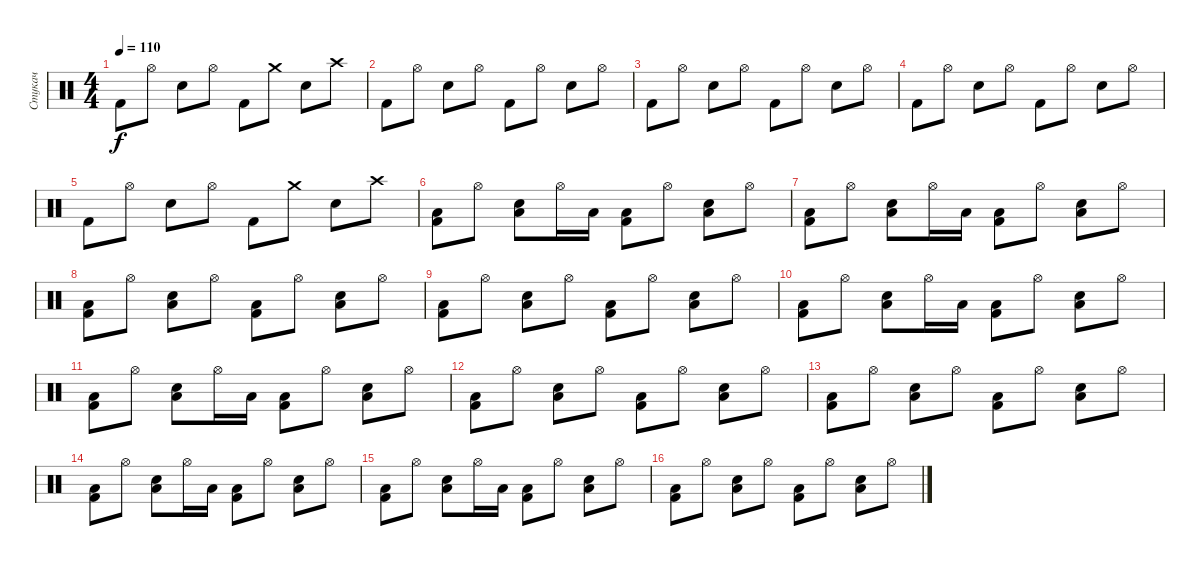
\track ("Стукач" "Стукач") {instrument percussion}
\staff {score}
\articulation defaults
\ts (4 4)
\tempo 110
\clef neutral
\ks c "Kick (hit) 2".8{dy f} "Hi-Hat (open)".8 "Electric Snare (hit)".8 "Hi-Hat (open)".8 "Kick (hit) 2".8 "Crash medium (hit)".8 "Electric Snare (hit)".8 "Crash high (hit)".8
|
"Kick (hit) 2".8 "Hi-Hat (open)".8 "Electric Snare (hit)".8 "Hi-Hat (open)".8 "Kick (hit) 2".8 "Hi-Hat (open)".8 "Electric Snare (hit)".8 "Hi-Hat (open)".8 |
"Kick (hit) 2".8 "Hi-Hat (open)".8 "Electric Snare (hit)".8 "Hi-Hat (open)".8 "Kick (hit) 2".8 "Hi-Hat (open)".8 "Electric Snare (hit)".8 "Hi-Hat (open)".8 |
"Kick (hit) 2".8 "Hi-Hat (open)".8 "Electric Snare (hit)".8 "Hi-Hat (open)".8 "Kick (hit) 2".8 "Hi-Hat (open)".8 "Electric Snare (hit)".8 "Hi-Hat (open)".8 |
"Kick (hit) 2".8 "Hi-Hat (open)".8 "Electric Snare (hit)".8 "Hi-Hat (open)".8 "Kick (hit) 2".8 "Crash medium (hit)".8 "Electric Snare (hit)".8 "Crash high (hit)".8 |
("Kick (hit) 2" "Low Floor Tom (hit)").8 "Hi-Hat (open)".8 ("Electric Snare (hit)" "Low Floor Tom (hit)").8 "Hi-Hat (open)".16 "Low Floor Tom (hit)".16 ("Kick (hit) 2" "Low Floor Tom (hit)").8 "Hi-Hat (open)".8 ("Electric Snare (hit)" "Low Floor Tom (hit)").8 "Hi-Hat (open)".8 |
("Kick (hit) 2" "Low Floor Tom (hit)").8 "Hi-Hat (open)".8 ("Electric Snare (hit)" "Low Floor Tom (hit)").8 "Hi-Hat (open)".16 "Low Floor Tom (hit)".16 ("Kick (hit) 2" "Low Floor Tom (hit)").8 "Hi-Hat (open)".8 ("Electric Snare (hit)" "Low Floor Tom (hit)").8 "Hi-Hat (open)".8 |
("Kick (hit) 2" "Low Floor Tom (hit)").8 "Hi-Hat (open)".8 ("Electric Snare (hit)" "Low Floor Tom (hit)").8 "Hi-Hat (open)".8 ("Kick (hit) 2" "Low Floor Tom (hit)").8 "Hi-Hat (open)".8 ("Electric Snare (hit)" "Low Floor Tom (hit)").8 "Hi-Hat (open)".8 |
("Kick (hit) 2" "Low Floor Tom (hit)").8 "Hi-Hat (open)".8 ("Electric Snare (hit)" "Low Floor Tom (hit)").8 "Hi-Hat (open)".8 ("Kick (hit) 2" "Low Floor Tom (hit)").8 "Hi-Hat (open)".8 ("Electric Snare (hit)" "Low Floor Tom (hit)").8 "Hi-Hat (open)".8 |
("Kick (hit) 2" "Low Floor Tom (hit)").8 "Hi-Hat (open)".8 ("Electric Snare (hit)" "Low Floor Tom (hit)").8 "Hi-Hat (open)".16 "Low Floor Tom (hit)".16 ("Kick (hit) 2" "Low Floor Tom (hit)").8 "Hi-Hat (open)".8 ("Electric Snare (hit)" "Low Floor Tom (hit)").8 "Hi-Hat (open)".8 |
("Kick (hit) 2" "Low Floor Tom (hit)").8 "Hi-Hat (open)".8 ("Electric Snare (hit)" "Low Floor Tom (hit)").8 "Hi-Hat (open)".16 "Low Floor Tom (hit)".16 ("Kick (hit) 2" "Low Floor Tom (hit)").8 "Hi-Hat (open)".8 ("Electric Snare (hit)" "Low Floor Tom (hit)").8 "Hi-Hat (open)".8 |
("Kick (hit) 2" "Low Floor Tom (hit)").8 "Hi-Hat (open)".8 ("Electric Snare (hit)" "Low Floor Tom (hit)").8 "Hi-Hat (open)".8 ("Kick (hit) 2" "Low Floor Tom (hit)").8 "Hi-Hat (open)".8 ("Electric Snare (hit)" "Low Floor Tom (hit)").8 "Hi-Hat (open)".8 |
("Kick (hit) 2" "Low Floor Tom (hit)").8 "Hi-Hat (open)".8 ("Electric Snare (hit)" "Low Floor Tom (hit)").8 "Hi-Hat (open)".8 ("Kick (hit) 2" "Low Floor Tom (hit)").8 "Hi-Hat (open)".8 ("Electric Snare (hit)" "Low Floor Tom (hit)").8 "Hi-Hat (open)".8 |
("Kick (hit) 2" "Low Floor Tom (hit)").8 "Hi-Hat (open)".8 ("Electric Snare (hit)" "Low Floor Tom (hit)").8 "Hi-Hat (open)".16 "Low Floor Tom (hit)".16 ("Kick (hit) 2" "Low Floor Tom (hit)").8 "Hi-Hat (open)".8 ("Electric Snare (hit)" "Low Floor Tom (hit)").8 "Hi-Hat (open)".8 |
("Kick (hit) 2" "Low Floor Tom (hit)").8 "Hi-Hat (open)".8 ("Electric Snare (hit)" "Low Floor Tom (hit)").8 "Hi-Hat (open)".16 "Low Floor Tom (hit)".16 ("Kick (hit) 2" "Low Floor Tom (hit)").8 "Hi-Hat (open)".8 ("Electric Snare (hit)" "Low Floor Tom (hit)").8 "Hi-Hat (open)".8 |
("Kick (hit) 2" "Low Floor Tom (hit)").8 "Hi-Hat (open)".8 ("Electric Snare (hit)" "Low Floor Tom (hit)").8 "Hi-Hat (open)".8 ("Kick (hit) 2" "Low Floor Tom (hit)").8 "Hi-Hat (open)".8 ("Electric Snare (hit)" "Low Floor Tom (hit)").8 "Hi-Hat (open)".8
